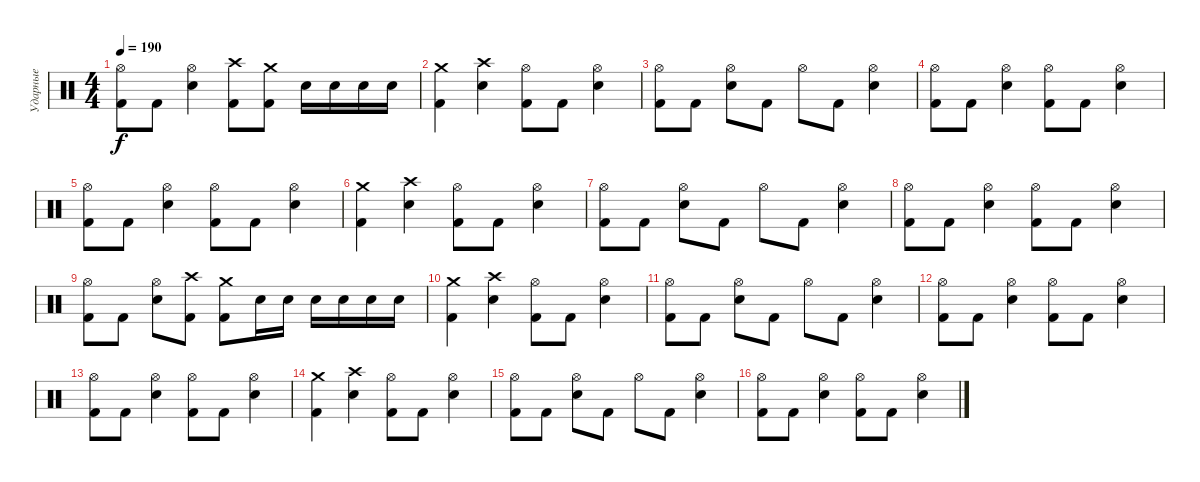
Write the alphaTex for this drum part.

\track ("Ударные" "Ударные") {instrument percussion}
\staff {score}
\articulation defaults
\ts (4 4)
\tempo 190
\clef neutral
\ks c
("Hi-Hat (open)" "Kick (hit) 2").8{dy f} "Kick (hit) 2".8 ("Hi-Hat (open)" "Snare (hit) 2").4 ("Crash high (hit)" "Kick (hit) 2").8 ("Crash medium (hit)" "Kick (hit) 2").8 "Snare (hit) 2".16 "Snare (hit) 2".16 "Snare (hit) 2".16 "Snare (hit) 2".16 |
("Crash medium (hit)" "Kick (hit) 2").4 ("Crash high (hit)" "Snare (hit) 2").4 ("Hi-Hat (open)" "Kick (hit) 2").8 "Kick (hit) 2".8 ("Hi-Hat (open)" "Snare (hit) 2").4 |
("Hi-Hat (open)" "Kick (hit) 2").8 "Kick (hit) 2".8 ("Hi-Hat (open)" "Snare (hit) 2").8 "Kick (hit) 2".8 "Hi-Hat (open)".8 "Kick (hit) 2".8 ("Hi-Hat (open)" "Snare (hit) 2").4 |
("Hi-Hat (open)" "Kick (hit) 2").8 "Kick (hit) 2".8 ("Hi-Hat (open)" "Snare (hit) 2").4 ("Hi-Hat (open)" "Kick (hit) 2").8 "Kick (hit) 2".8 ("Hi-Hat (open)" "Snare (hit) 2").4 |
("Hi-Hat (open)" "Kick (hit) 2").8 "Kick (hit) 2".8 ("Hi-Hat (open)" "Snare (hit) 2").4 ("Hi-Hat (open)" "Kick (hit) 2").8 "Kick (hit) 2".8 ("Hi-Hat (open)" "Snare (hit) 2").4 |
("Crash medium (hit)" "Kick (hit) 2").4 ("Crash high (hit)" "Snare (hit) 2").4 ("Hi-Hat (open)" "Kick (hit) 2").8 "Kick (hit) 2".8 ("Hi-Hat (open)" "Snare (hit) 2").4 |
("Hi-Hat (open)" "Kick (hit) 2").8 "Kick (hit) 2".8 ("Hi-Hat (open)" "Snare (hit) 2").8 "Kick (hit) 2".8 "Hi-Hat (open)".8 "Kick (hit) 2".8 ("Hi-Hat (open)" "Snare (hit) 2").4 |
("Hi-Hat (open)" "Kick (hit) 2").8 "Kick (hit) 2".8 ("Hi-Hat (open)" "Snare (hit) 2").4 ("Hi-Hat (open)" "Kick (hit) 2").8 "Kick (hit) 2".8 ("Hi-Hat (open)" "Snare (hit) 2").4 |
("Hi-Hat (open)" "Kick (hit) 2").8 "Kick (hit) 2".8 ("Hi-Hat (open)" "Snare (hit) 2").8 ("Crash high (hit)" "Kick (hit) 2").8 ("Crash medium (hit)" "Kick (hit) 2").8 "Snare (hit) 2".16 "Snare (hit) 2".16 "Snare (hit) 2".16 "Snare (hit) 2".16 "Snare (hit) 2".16 "Snare (hit) 2".16 |
("Crash medium (hit)" "Kick (hit) 2").4 ("Crash high (hit)" "Snare (hit) 2").4 ("Hi-Hat (open)" "Kick (hit) 2").8 "Kick (hit) 2".8 ("Hi-Hat (open)" "Snare (hit) 2").4 |
("Hi-Hat (open)" "Kick (hit) 2").8 "Kick (hit) 2".8 ("Hi-Hat (open)" "Snare (hit) 2").8 "Kick (hit) 2".8 "Hi-Hat (open)".8 "Kick (hit) 2".8 ("Hi-Hat (open)" "Snare (hit) 2").4 |
("Hi-Hat (open)" "Kick (hit) 2").8 "Kick (hit) 2".8 ("Hi-Hat (open)" "Snare (hit) 2").4 ("Hi-Hat (open)" "Kick (hit) 2").8 "Kick (hit) 2".8 ("Hi-Hat (open)" "Snare (hit) 2").4 |
("Hi-Hat (open)" "Kick (hit) 2").8 "Kick (hit) 2".8 ("Hi-Hat (open)" "Snare (hit) 2").4 ("Hi-Hat (open)" "Kick (hit) 2").8 "Kick (hit) 2".8 ("Hi-Hat (open)" "Snare (hit) 2").4 |
("Crash medium (hit)" "Kick (hit) 2").4 ("Crash high (hit)" "Snare (hit) 2").4 ("Hi-Hat (open)" "Kick (hit) 2").8 "Kick (hit) 2".8 ("Hi-Hat (open)" "Snare (hit) 2").4 |
("Hi-Hat (open)" "Kick (hit) 2").8 "Kick (hit) 2".8 ("Hi-Hat (open)" "Snare (hit) 2").8 "Kick (hit) 2".8 "Hi-Hat (open)".8 "Kick (hit) 2".8 ("Hi-Hat (open)" "Snare (hit) 2").4 |
("Hi-Hat (open)" "Kick (hit) 2").8 "Kick (hit) 2".8 ("Hi-Hat (open)" "Snare (hit) 2").4 ("Hi-Hat (open)" "Kick (hit) 2").8 "Kick (hit) 2".8 ("Hi-Hat (open)" "Snare (hit) 2").4
